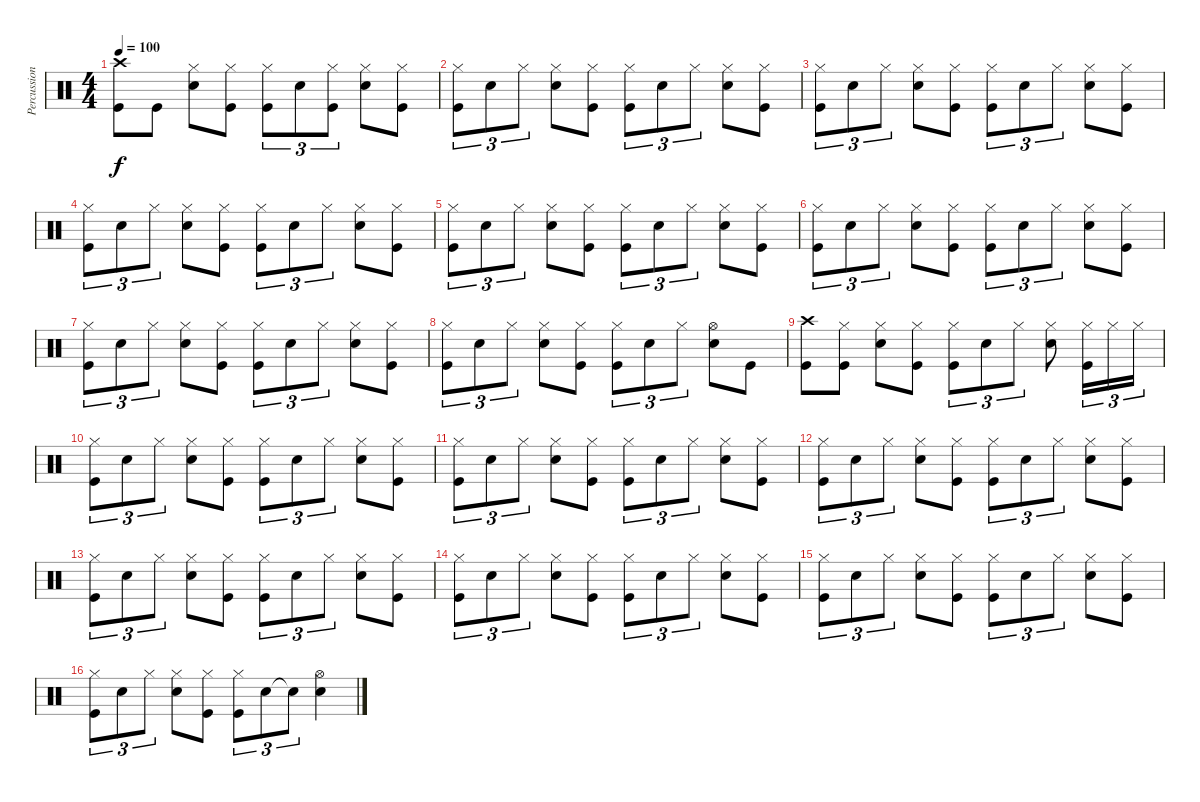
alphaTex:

\track ("Percussions" "Percussion") {instrument percussion}
\staff {score}
\articulation defaults
\ts (4 4)
\tempo 100
\clef neutral
\ks c
("Crash high (hit)" "Kick (hit)").8{dy f} "Kick (hit)".8 ("Hi-Hat (closed)" "Electric Snare (hit)").8 ("Hi-Hat (closed)" "Kick (hit)").8 ("Hi-Hat (closed)" "Kick (hit)").8{tu (3 2)} "Electric Snare (hit)".8{tu (3 2)} ("Hi-Hat (closed)" "Kick (hit)").8{tu (3 2)} ("Hi-Hat (closed)" "Electric Snare (hit)").8 ("Hi-Hat (closed)" "Kick (hit)").8 |
("Hi-Hat (closed)" "Kick (hit)").8{tu (3 2)} "Electric Snare (hit)".8{tu (3 2)} "Hi-Hat (closed)".8{tu (3 2)} ("Hi-Hat (closed)" "Electric Snare (hit)").8 ("Hi-Hat (closed)" "Kick (hit)").8 ("Hi-Hat (closed)" "Kick (hit)").8{tu (3 2)} "Electric Snare (hit)".8{tu (3 2)} "Hi-Hat (closed)".8{tu (3 2)} ("Hi-Hat (closed)" "Electric Snare (hit)").8 ("Hi-Hat (closed)" "Kick (hit)").8 |
("Hi-Hat (closed)" "Kick (hit)").8{tu (3 2)} "Electric Snare (hit)".8{tu (3 2)} "Hi-Hat (closed)".8{tu (3 2)} ("Hi-Hat (closed)" "Electric Snare (hit)").8 ("Hi-Hat (closed)" "Kick (hit)").8 ("Hi-Hat (closed)" "Kick (hit)").8{tu (3 2)} "Electric Snare (hit)".8{tu (3 2)} "Hi-Hat (closed)".8{tu (3 2)} ("Hi-Hat (closed)" "Electric Snare (hit)").8 ("Hi-Hat (closed)" "Kick (hit)").8 |
("Hi-Hat (closed)" "Kick (hit)").8{tu (3 2)} "Electric Snare (hit)".8{tu (3 2)} "Hi-Hat (closed)".8{tu (3 2)} ("Hi-Hat (closed)" "Electric Snare (hit)").8 ("Hi-Hat (closed)" "Kick (hit)").8 ("Hi-Hat (closed)" "Kick (hit)").8{tu (3 2)} "Electric Snare (hit)".8{tu (3 2)} "Hi-Hat (closed)".8{tu (3 2)} ("Hi-Hat (closed)" "Electric Snare (hit)").8 ("Hi-Hat (closed)" "Kick (hit)").8 |
("Hi-Hat (closed)" "Kick (hit)").8{tu (3 2)} "Electric Snare (hit)".8{tu (3 2)} "Hi-Hat (closed)".8{tu (3 2)} ("Hi-Hat (closed)" "Electric Snare (hit)").8 ("Hi-Hat (closed)" "Kick (hit)").8 ("Hi-Hat (closed)" "Kick (hit)").8{tu (3 2)} "Electric Snare (hit)".8{tu (3 2)} "Hi-Hat (closed)".8{tu (3 2)} ("Hi-Hat (closed)" "Electric Snare (hit)").8 ("Hi-Hat (closed)" "Kick (hit)").8 |
("Hi-Hat (closed)" "Kick (hit)").8{tu (3 2)} "Electric Snare (hit)".8{tu (3 2)} "Hi-Hat (closed)".8{tu (3 2)} ("Hi-Hat (closed)" "Electric Snare (hit)").8 ("Hi-Hat (closed)" "Kick (hit)").8 ("Hi-Hat (closed)" "Kick (hit)").8{tu (3 2)} "Electric Snare (hit)".8{tu (3 2)} "Hi-Hat (closed)".8{tu (3 2)} ("Hi-Hat (closed)" "Electric Snare (hit)").8 ("Hi-Hat (closed)" "Kick (hit)").8 |
("Hi-Hat (closed)" "Kick (hit)").8{tu (3 2)} "Electric Snare (hit)".8{tu (3 2)} "Hi-Hat (closed)".8{tu (3 2)} ("Hi-Hat (closed)" "Electric Snare (hit)").8 ("Hi-Hat (closed)" "Kick (hit)").8 ("Hi-Hat (closed)" "Kick (hit)").8{tu (3 2)} "Electric Snare (hit)".8{tu (3 2)} "Hi-Hat (closed)".8{tu (3 2)} ("Hi-Hat (closed)" "Electric Snare (hit)").8 ("Hi-Hat (closed)" "Kick (hit)").8 |
("Hi-Hat (closed)" "Kick (hit)").8{tu (3 2)} "Electric Snare (hit)".8{tu (3 2)} "Hi-Hat (closed)".8{tu (3 2)} ("Hi-Hat (closed)" "Electric Snare (hit)").8 ("Hi-Hat (closed)" "Kick (hit)").8 ("Hi-Hat (closed)" "Kick (hit)").8{tu (3 2)} "Electric Snare (hit)".8{tu (3 2)} "Hi-Hat (closed)".8{tu (3 2)} ("Hi-Hat (open)" "Electric Snare (hit)").8 "Kick (hit)".8 |
("Crash high (hit)" "Kick (hit)").8 ("Hi-Hat (closed)" "Kick (hit)").8 ("Hi-Hat (closed)" "Electric Snare (hit)").8 ("Hi-Hat (closed)" "Kick (hit)").8 ("Hi-Hat (closed)" "Kick (hit)").8{tu (3 2)} "Electric Snare (hit)".8{tu (3 2)} "Hi-Hat (closed)".8{tu (3 2)} ("Hi-Hat (closed)" "Electric Snare (hit)").8 ("Hi-Hat (closed)" "Kick (hit)").16{tu (3 2)} "Hi-Hat (closed)".16{tu (3 2)} "Hi-Hat (closed)".16{tu (3 2)} |
("Hi-Hat (closed)" "Kick (hit)").8{tu (3 2)} "Electric Snare (hit)".8{tu (3 2)} "Hi-Hat (closed)".8{tu (3 2)} ("Hi-Hat (closed)" "Electric Snare (hit)").8 ("Hi-Hat (closed)" "Kick (hit)").8 ("Hi-Hat (closed)" "Kick (hit)").8{tu (3 2)} "Electric Snare (hit)".8{tu (3 2)} "Hi-Hat (closed)".8{tu (3 2)} ("Hi-Hat (closed)" "Electric Snare (hit)").8 ("Hi-Hat (closed)" "Kick (hit)").8 |
("Hi-Hat (closed)" "Kick (hit)").8{tu (3 2)} "Electric Snare (hit)".8{tu (3 2)} "Hi-Hat (closed)".8{tu (3 2)} ("Hi-Hat (closed)" "Electric Snare (hit)").8 ("Hi-Hat (closed)" "Kick (hit)").8 ("Hi-Hat (closed)" "Kick (hit)").8{tu (3 2)} "Electric Snare (hit)".8{tu (3 2)} "Hi-Hat (closed)".8{tu (3 2)} ("Hi-Hat (closed)" "Electric Snare (hit)").8 ("Hi-Hat (closed)" "Kick (hit)").8 |
("Hi-Hat (closed)" "Kick (hit)").8{tu (3 2)} "Electric Snare (hit)".8{tu (3 2)} "Hi-Hat (closed)".8{tu (3 2)} ("Hi-Hat (closed)" "Electric Snare (hit)").8 ("Hi-Hat (closed)" "Kick (hit)").8 ("Hi-Hat (closed)" "Kick (hit)").8{tu (3 2)} "Electric Snare (hit)".8{tu (3 2)} "Hi-Hat (closed)".8{tu (3 2)} ("Hi-Hat (closed)" "Electric Snare (hit)").8 ("Hi-Hat (closed)" "Kick (hit)").8 |
("Hi-Hat (closed)" "Kick (hit)").8{tu (3 2)} "Electric Snare (hit)".8{tu (3 2)} "Hi-Hat (closed)".8{tu (3 2)} ("Hi-Hat (closed)" "Electric Snare (hit)").8 ("Hi-Hat (closed)" "Kick (hit)").8 ("Hi-Hat (closed)" "Kick (hit)").8{tu (3 2)} "Electric Snare (hit)".8{tu (3 2)} "Hi-Hat (closed)".8{tu (3 2)} ("Hi-Hat (closed)" "Electric Snare (hit)").8 ("Hi-Hat (closed)" "Kick (hit)").8 |
("Hi-Hat (closed)" "Kick (hit)").8{tu (3 2)} "Electric Snare (hit)".8{tu (3 2)} "Hi-Hat (closed)".8{tu (3 2)} ("Hi-Hat (closed)" "Electric Snare (hit)").8 ("Hi-Hat (closed)" "Kick (hit)").8 ("Hi-Hat (closed)" "Kick (hit)").8{tu (3 2)} "Electric Snare (hit)".8{tu (3 2)} "Hi-Hat (closed)".8{tu (3 2)} ("Hi-Hat (closed)" "Electric Snare (hit)").8 ("Hi-Hat (closed)" "Kick (hit)").8 |
("Hi-Hat (closed)" "Kick (hit)").8{tu (3 2)} "Electric Snare (hit)".8{tu (3 2)} "Hi-Hat (closed)".8{tu (3 2)} ("Hi-Hat (closed)" "Electric Snare (hit)").8 ("Hi-Hat (closed)" "Kick (hit)").8 ("Hi-Hat (closed)" "Kick (hit)").8{tu (3 2)} "Electric Snare (hit)".8{tu (3 2)} "Hi-Hat (closed)".8{tu (3 2)} ("Hi-Hat (closed)" "Electric Snare (hit)").8 ("Hi-Hat (closed)" "Kick (hit)").8 |
("Hi-Hat (closed)" "Kick (hit)").8{tu (3 2)} "Electric Snare (hit)".8{tu (3 2)} "Hi-Hat (closed)".8{tu (3 2)} ("Hi-Hat (closed)" "Electric Snare (hit)").8 ("Hi-Hat (closed)" "Kick (hit)").8 ("Hi-Hat (closed)" "Kick (hit)").8{tu (3 2)} "Electric Snare (hit)".8{tu (3 2)} "Snare (hit)"{t}.8{tu (3 2)} ("Hi-Hat (open)" "Electric Snare (hit)").4
